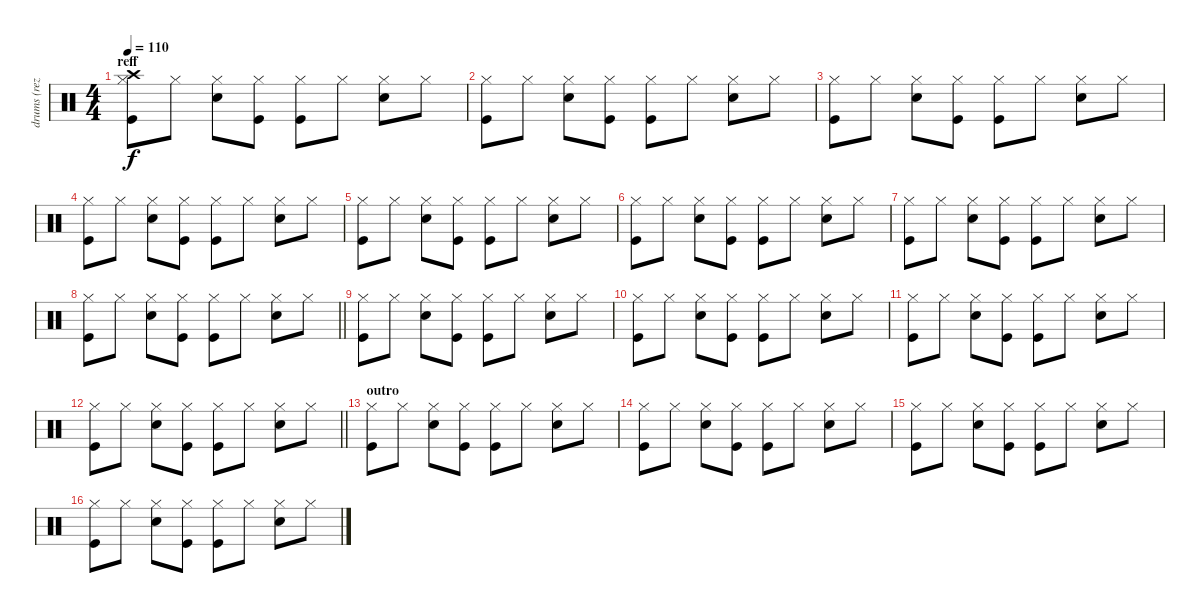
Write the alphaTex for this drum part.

\track ("drums (reza)" "drums (rez") {instrument percussion}
\staff {score}
\articulation defaults
\ts (4 4)
\section ("" "reff")
\tempo 110
\clef neutral
\ks c
("Hi-Hat (closed)" "Kick (hit)" "Crash high (hit)").8{dy f} "Hi-Hat (closed)".8 ("Hi-Hat (closed)" "Snare (hit) 2").8 ("Hi-Hat (closed)" "Kick (hit)").8 ("Hi-Hat (closed)" "Kick (hit)").8 "Hi-Hat (closed)".8 ("Hi-Hat (closed)" "Snare (hit) 2").8 "Hi-Hat (closed)".8 |
("Hi-Hat (closed)" "Kick (hit)").8 "Hi-Hat (closed)".8 ("Hi-Hat (closed)" "Snare (hit) 2").8 ("Hi-Hat (closed)" "Kick (hit)").8 ("Hi-Hat (closed)" "Kick (hit)").8 "Hi-Hat (closed)".8 ("Hi-Hat (closed)" "Snare (hit) 2").8 "Hi-Hat (closed)".8 |
("Hi-Hat (closed)" "Kick (hit)").8 "Hi-Hat (closed)".8 ("Hi-Hat (closed)" "Snare (hit) 2").8 ("Hi-Hat (closed)" "Kick (hit)").8 ("Hi-Hat (closed)" "Kick (hit)").8 "Hi-Hat (closed)".8 ("Hi-Hat (closed)" "Snare (hit) 2").8 "Hi-Hat (closed)".8 |
("Hi-Hat (closed)" "Kick (hit)").8 "Hi-Hat (closed)".8 ("Hi-Hat (closed)" "Snare (hit) 2").8 ("Hi-Hat (closed)" "Kick (hit)").8 ("Hi-Hat (closed)" "Kick (hit)").8 "Hi-Hat (closed)".8 ("Hi-Hat (closed)" "Snare (hit) 2").8 "Hi-Hat (closed)".8 |
("Hi-Hat (closed)" "Kick (hit)").8 "Hi-Hat (closed)".8 ("Hi-Hat (closed)" "Snare (hit) 2").8 ("Hi-Hat (closed)" "Kick (hit)").8 ("Hi-Hat (closed)" "Kick (hit)").8 "Hi-Hat (closed)".8 ("Hi-Hat (closed)" "Snare (hit) 2").8 "Hi-Hat (closed)".8 |
("Hi-Hat (closed)" "Kick (hit)").8 "Hi-Hat (closed)".8 ("Hi-Hat (closed)" "Snare (hit) 2").8 ("Hi-Hat (closed)" "Kick (hit)").8 ("Hi-Hat (closed)" "Kick (hit)").8 "Hi-Hat (closed)".8 ("Hi-Hat (closed)" "Snare (hit) 2").8 "Hi-Hat (closed)".8 |
("Hi-Hat (closed)" "Kick (hit)").8 "Hi-Hat (closed)".8 ("Hi-Hat (closed)" "Snare (hit) 2").8 ("Hi-Hat (closed)" "Kick (hit)").8 ("Hi-Hat (closed)" "Kick (hit)").8 "Hi-Hat (closed)".8 ("Hi-Hat (closed)" "Snare (hit) 2").8 "Hi-Hat (closed)".8 |
\barLineRight lightlight
("Hi-Hat (closed)" "Kick (hit)").8 "Hi-Hat (closed)".8 ("Hi-Hat (closed)" "Snare (hit) 2").8 ("Hi-Hat (closed)" "Kick (hit)").8 ("Hi-Hat (closed)" "Kick (hit)").8 "Hi-Hat (closed)".8 ("Hi-Hat (closed)" "Snare (hit) 2").8 "Hi-Hat (closed)".8 |
("Hi-Hat (closed)" "Kick (hit)").8 "Hi-Hat (closed)".8 ("Hi-Hat (closed)" "Snare (hit) 2").8 ("Hi-Hat (closed)" "Kick (hit)").8 ("Hi-Hat (closed)" "Kick (hit)").8 "Hi-Hat (closed)".8 ("Hi-Hat (closed)" "Snare (hit) 2").8 "Hi-Hat (closed)".8 |
("Hi-Hat (closed)" "Kick (hit)").8 "Hi-Hat (closed)".8 ("Hi-Hat (closed)" "Snare (hit) 2").8 ("Hi-Hat (closed)" "Kick (hit)").8 ("Hi-Hat (closed)" "Kick (hit)").8 "Hi-Hat (closed)".8 ("Hi-Hat (closed)" "Snare (hit) 2").8 "Hi-Hat (closed)".8 |
("Hi-Hat (closed)" "Kick (hit)").8 "Hi-Hat (closed)".8 ("Hi-Hat (closed)" "Snare (hit) 2").8 ("Hi-Hat (closed)" "Kick (hit)").8 ("Hi-Hat (closed)" "Kick (hit)").8 "Hi-Hat (closed)".8 ("Hi-Hat (closed)" "Snare (hit) 2").8 "Hi-Hat (closed)".8 |
\barLineRight lightlight
("Hi-Hat (closed)" "Kick (hit)").8 "Hi-Hat (closed)".8 ("Hi-Hat (closed)" "Snare (hit) 2").8 ("Hi-Hat (closed)" "Kick (hit)").8 ("Hi-Hat (closed)" "Kick (hit)").8 "Hi-Hat (closed)".8 ("Hi-Hat (closed)" "Snare (hit) 2").8 "Hi-Hat (closed)".8 |
\section ("" "outro")
("Hi-Hat (closed)" "Kick (hit)").8 "Hi-Hat (closed)".8 ("Hi-Hat (closed)" "Snare (hit) 2").8 ("Hi-Hat (closed)" "Kick (hit)").8 ("Hi-Hat (closed)" "Kick (hit)").8 "Hi-Hat (closed)".8 ("Hi-Hat (closed)" "Snare (hit) 2").8 "Hi-Hat (closed)".8 |
("Hi-Hat (closed)" "Kick (hit)").8 "Hi-Hat (closed)".8 ("Hi-Hat (closed)" "Snare (hit) 2").8 ("Hi-Hat (closed)" "Kick (hit)").8 ("Hi-Hat (closed)" "Kick (hit)").8 "Hi-Hat (closed)".8 ("Hi-Hat (closed)" "Snare (hit) 2").8 "Hi-Hat (closed)".8 |
("Hi-Hat (closed)" "Kick (hit)").8 "Hi-Hat (closed)".8 ("Hi-Hat (closed)" "Snare (hit) 2").8 ("Hi-Hat (closed)" "Kick (hit)").8 ("Hi-Hat (closed)" "Kick (hit)").8 "Hi-Hat (closed)".8 ("Hi-Hat (closed)" "Snare (hit) 2").8 "Hi-Hat (closed)".8 |
("Hi-Hat (closed)" "Kick (hit)").8 "Hi-Hat (closed)".8 ("Hi-Hat (closed)" "Snare (hit) 2").8 ("Hi-Hat (closed)" "Kick (hit)").8 ("Hi-Hat (closed)" "Kick (hit)").8 "Hi-Hat (closed)".8 ("Hi-Hat (closed)" "Snare (hit) 2").8 "Hi-Hat (closed)".8
